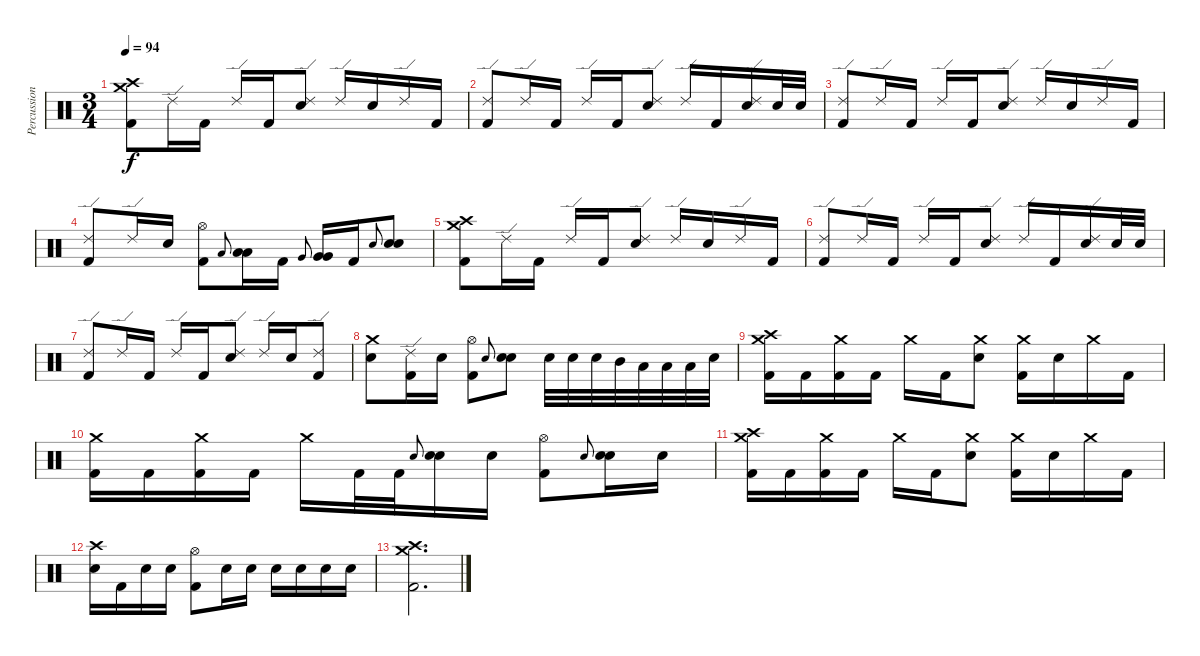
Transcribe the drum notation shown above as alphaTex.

\track ("Percussion" "Percussion") {instrument percussion}
\staff {score}
\articulation defaults
\ts (3 4)
\tempo 94
\clef neutral
\ks c
("Crash medium (hit)" "Crash high (hit)" "Kick (hit) 2").8{dy f} "Ride (edge) 2".16 "Kick (hit) 2".16 "Ride (edge) 2".16 "Kick (hit) 2".16 ("Ride (edge) 2" "Electric Snare (hit)").8 "Ride (edge) 2".16 "Electric Snare (hit)".16 "Ride (edge) 2".16 "Kick (hit) 2".16 |
("Ride (edge) 2" "Kick (hit) 2").8 "Ride (edge) 2".16 "Kick (hit) 2".16 "Ride (edge) 2".16 "Kick (hit) 2".16 ("Ride (edge) 2" "Electric Snare (hit)").8 "Ride (edge) 2".16 "Kick (hit) 2".16 ("Ride (edge) 2" "Electric Snare (hit)").16 "Electric Snare (hit)".32 "Electric Snare (hit)".32 |
("Ride (edge) 2" "Kick (hit) 2").8 "Ride (edge) 2".16 "Kick (hit) 2".16 "Ride (edge) 2".16 "Kick (hit) 2".16 ("Ride (edge) 2" "Electric Snare (hit)").8 "Ride (edge) 2".16 "Electric Snare (hit)".16 "Ride (edge) 2".16 "Kick (hit) 2".16 |
("Ride (edge) 2" "Kick (hit) 2").8 "Ride (edge) 2".16 "Electric Snare (hit)".16 ("Hi-Hat (open)" "Kick (hit) 2").8 "Low Tom (hit)".8{gr onbeat} ("Low Tom (hit)" "Low Tom (hit)").16 "Kick (hit) 2".16 "Very Low Tom (hit)".8{gr onbeat} ("Very Low Tom (hit)" "Very Low Tom (hit)").16 "Kick (hit) 2".16 "Electric Snare (hit)".8{gr onbeat} ("Electric Snare (hit)" "Electric Snare (hit)").8 |
("Crash medium (hit)" "Crash high (hit)" "Kick (hit) 2").8 "Ride (edge) 2".16 "Kick (hit) 2".16 "Ride (edge) 2".16 "Kick (hit) 2".16 ("Ride (edge) 2" "Electric Snare (hit)").8 "Ride (edge) 2".16 "Electric Snare (hit)".16 "Ride (edge) 2".16 "Kick (hit) 2".16 |
("Ride (edge) 2" "Kick (hit) 2").8 "Ride (edge) 2".16 "Kick (hit) 2".16 "Ride (edge) 2".16 "Kick (hit) 2".16 ("Ride (edge) 2" "Electric Snare (hit)").8 "Ride (edge) 2".16 "Kick (hit) 2".16 ("Ride (edge) 2" "Electric Snare (hit)").16 "Electric Snare (hit)".32 "Electric Snare (hit)".32 |
("Ride (edge) 2" "Kick (hit) 2").8 "Ride (edge) 2".16 "Kick (hit) 2".16 "Ride (edge) 2".16 "Kick (hit) 2".16 ("Ride (edge) 2" "Electric Snare (hit)").8 "Ride (edge) 2".16 "Electric Snare (hit)".16 ("Ride (edge) 2" "Kick (hit) 2").8 |
("Crash medium (hit)" "Electric Snare (hit)").8 ("Ride (edge) 2" "Kick (hit) 2").16 "Electric Snare (hit)".16 ("Hi-Hat (open)" "Kick (hit) 2").8 "Electric Snare (hit)".8{gr onbeat} ("Electric Snare (hit)" "Electric Snare (hit)").8 "Electric Snare (hit)".32 "Electric Snare (hit)".32 "Electric Snare (hit)".32 "Mid Tom (hit)".32 "Low Tom (hit)".32 "Low Tom (hit)".32 "Low Tom (hit)".32 "Electric Snare (hit)".32 |
("Crash medium (hit)" "Crash high (hit)" "Kick (hit) 2").16 "Kick (hit) 2".16 ("Crash medium (hit)" "Kick (hit) 2").16 "Kick (hit) 2".16 "Crash medium (hit)".16 "Kick (hit) 2".16 ("Crash medium (hit)" "Electric Snare (hit)").8 ("Crash medium (hit)" "Kick (hit) 2").16 "Electric Snare (hit)".16 "Crash medium (hit)".16 "Kick (hit) 2".16 |
("Crash medium (hit)" "Kick (hit) 2").16 "Kick (hit) 2".16 ("Crash medium (hit)" "Kick (hit) 2").16 "Kick (hit) 2".16 "Crash medium (hit)".16 "Kick (hit) 2".32 "Kick (hit) 2".32 "Electric Snare (hit)".8{gr onbeat} ("Electric Snare (hit)" "Electric Snare (hit)").16 "Electric Snare (hit)".16 ("Hi-Hat (open)" "Kick (hit) 2").8 "Electric Snare (hit)".8{gr onbeat} ("Electric Snare (hit)" "Electric Snare (hit)").16 "Electric Snare (hit)".16 |
("Crash medium (hit)" "Crash high (hit)" "Kick (hit) 2").16 "Kick (hit) 2".16 ("Crash medium (hit)" "Kick (hit) 2").16 "Kick (hit) 2".16 "Crash medium (hit)".16 "Kick (hit) 2".16 ("Crash medium (hit)" "Electric Snare (hit)").8 ("Crash medium (hit)" "Kick (hit) 2").16 "Electric Snare (hit)".16 "Crash medium (hit)".16 "Kick (hit) 2".16 |
("Crash high (hit)" "Electric Snare (hit)").16 "Kick (hit) 2".16 "Electric Snare (hit)".16 "Electric Snare (hit)".16 ("Hi-Hat (open)" "Kick (hit) 2").8 "Electric Snare (hit)".16 "Electric Snare (hit)".16 "Electric Snare (hit)".16 "Electric Snare (hit)".16 "Electric Snare (hit)".16 "Electric Snare (hit)".16 |
("Crash medium (hit)" "Crash high (hit)" "Kick (hit) 2").2{d}
